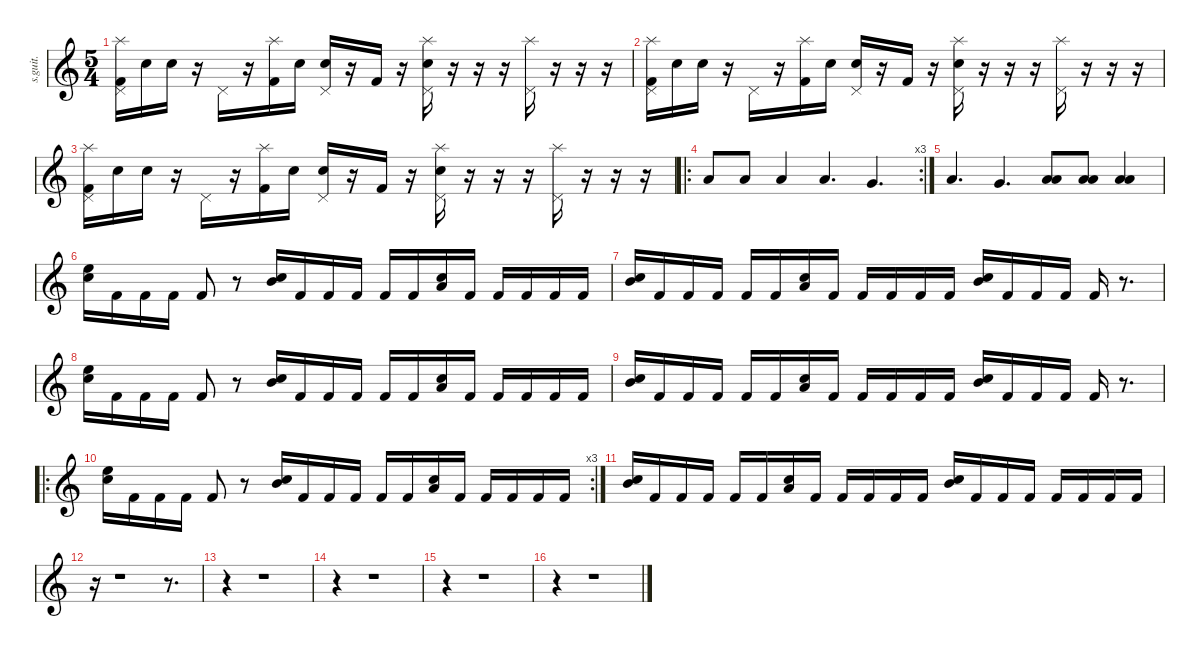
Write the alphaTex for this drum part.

\defaultSystemsLayout 4
\hideDynamics
\bracketExtendMode nobrackets
\track ("Pete Riley" "s.guit.") {instrument percussion}
\staff {score}
\articulation defaults
\ts (5 4)
\tempo (152 hide)
\clef g2
\ks c
("Splash (hit)" "Pedal Hi-Hat (hit)" "Kick (hit) 2").16{dy f} "Snare (hit) 2".16{dy mp} "Snare (hit) 2".16{dy p} r.16 "Pedal Hi-Hat (hit)".16{dy mp} r.16 ("Splash (hit)" "Kick (hit) 2").16{dy f} "Snare (hit) 2".16{dy mp} ("Pedal Hi-Hat (hit)" "Snare (hit) 2").16 r.16 "Kick (hit) 2".16{dy mf} r.16 ("Splash (hit)" "Pedal Hi-Hat (hit)" "Snare (hit) 2").16{dy f} r.16 r.16 r.16 ("Splash (hit)" "Pedal Hi-Hat (hit)").16 r.16 r.16 r.16 |
("Splash (hit)" "Pedal Hi-Hat (hit)" "Kick (hit) 2").16 "Snare (hit) 2".16{dy mp} "Snare (hit) 2".16{dy p} r.16 "Pedal Hi-Hat (hit)".16{dy mp} r.16 ("Splash (hit)" "Kick (hit) 2").16{dy f} "Snare (hit) 2".16{dy mp} ("Pedal Hi-Hat (hit)" "Snare (hit) 2").16 r.16 "Kick (hit) 2".16{dy mf} r.16 ("Splash (hit)" "Pedal Hi-Hat (hit)" "Snare (hit) 2").16{dy f} r.16 r.16 r.16 ("Splash (hit)" "Pedal Hi-Hat (hit)").16 r.16 r.16 r.16 |
("Splash (hit)" "Pedal Hi-Hat (hit)" "Kick (hit) 2").16 "Snare (hit) 2".16{dy mp} "Snare (hit) 2".16{dy p} r.16 "Pedal Hi-Hat (hit)".16{dy mp} r.16 ("Splash (hit)" "Kick (hit) 2").16{dy f} "Snare (hit) 2".16{dy mp} ("Pedal Hi-Hat (hit)" "Snare (hit) 2").16 r.16 "Kick (hit) 2".16{dy mf} r.16 ("Splash (hit)" "Pedal Hi-Hat (hit)" "Snare (hit) 2").16{dy f} r.16 r.16 r.16 ("Splash (hit)" "Pedal Hi-Hat (hit)").16 r.16 r.16 r.16 |
\ro
\rc 3 "Low Floor Tom (hit)".8 "Low Floor Tom (hit)".8 "Low Floor Tom (hit)".4 "Low Tom (hit)".4{d} "Very Low Tom (hit)".4{d}
|
"Low Tom (hit)".4{d} "Very Low Tom (hit)".4{d} ("Low Tom (hit)" "Low Floor Tom (hit)").8 ("Low Tom (hit)" "Low Floor Tom (hit)").8 ("Low Tom (hit)" "Low Floor Tom (hit)").4 |
("High Floor Tom (hit)" "Snare (hit) 2").16 "Kick (hit) 2".16 "Kick (hit) 2".16 "Kick (hit) 2".16 "Kick (hit) 2".8 r.8 ("Mid Tom (hit)" "Snare (hit) 2").16 "Kick (hit) 2".16 "Kick (hit) 2".16 "Kick (hit) 2".16 "Kick (hit) 2".16 "Kick (hit) 2".16 ("Low Tom (hit)" "Snare (hit) 2").16 "Kick (hit) 2".16 "Kick (hit) 2".16 "Kick (hit) 2".16 "Kick (hit) 2".16 "Kick (hit) 2".16 |
("Mid Tom (hit)" "Snare (hit) 2").16 "Kick (hit) 2".16 "Kick (hit) 2".16 "Kick (hit) 2".16 "Kick (hit) 2".16 "Kick (hit) 2".16 ("Low Tom (hit)" "Snare (hit) 2").16 "Kick (hit) 2".16 "Kick (hit) 2".16 "Kick (hit) 2".16 "Kick (hit) 2".16 "Kick (hit) 2".16 ("Mid Tom (hit)" "Snare (hit) 2").16 "Kick (hit) 2".16 "Kick (hit) 2".16 "Kick (hit) 2".16 "Kick (hit) 2".16 r.8{d} |
("High Floor Tom (hit)" "Snare (hit) 2").16 "Kick (hit) 2".16 "Kick (hit) 2".16 "Kick (hit) 2".16 "Kick (hit) 2".8 r.8 ("Mid Tom (hit)" "Snare (hit) 2").16 "Kick (hit) 2".16 "Kick (hit) 2".16 "Kick (hit) 2".16 "Kick (hit) 2".16 "Kick (hit) 2".16 ("Low Tom (hit)" "Snare (hit) 2").16 "Kick (hit) 2".16 "Kick (hit) 2".16 "Kick (hit) 2".16 "Kick (hit) 2".16 "Kick (hit) 2".16 |
("Mid Tom (hit)" "Snare (hit) 2").16 "Kick (hit) 2".16 "Kick (hit) 2".16 "Kick (hit) 2".16 "Kick (hit) 2".16 "Kick (hit) 2".16 ("Low Tom (hit)" "Snare (hit) 2").16 "Kick (hit) 2".16 "Kick (hit) 2".16 "Kick (hit) 2".16 "Kick (hit) 2".16 "Kick (hit) 2".16 ("Mid Tom (hit)" "Snare (hit) 2").16 "Kick (hit) 2".16 "Kick (hit) 2".16 "Kick (hit) 2".16 "Kick (hit) 2".16 r.8{d} |
\ro
\rc 3
("High Floor Tom (hit)" "Snare (hit) 2").16 "Kick (hit) 2".16 "Kick (hit) 2".16 "Kick (hit) 2".16 "Kick (hit) 2".8 r.8 ("Mid Tom (hit)" "Snare (hit) 2").16 "Kick (hit) 2".16 "Kick (hit) 2".16 "Kick (hit) 2".16 "Kick (hit) 2".16 "Kick (hit) 2".16 ("Low Tom (hit)" "Snare (hit) 2").16 "Kick (hit) 2".16 "Kick (hit) 2".16 "Kick (hit) 2".16 "Kick (hit) 2".16 "Kick (hit) 2".16 |
("Mid Tom (hit)" "Snare (hit) 2").16 "Kick (hit) 2".16 "Kick (hit) 2".16 "Kick (hit) 2".16 "Kick (hit) 2".16 "Kick (hit) 2".16 ("Low Tom (hit)" "Snare (hit) 2").16 "Kick (hit) 2".16 "Kick (hit) 2".16 "Kick (hit) 2".16 "Kick (hit) 2".16 "Kick (hit) 2".16 ("Mid Tom (hit)" "Snare (hit) 2").16 "Kick (hit) 2".16 "Kick (hit) 2".16 "Kick (hit) 2".16 "Kick (hit) 2".16 "Kick (hit) 2".16 "Kick (hit) 2".16 "Kick (hit) 2".16 |
r.16 r.1 r.8{d} |
r.4 r.1 |
r.4 r.1 |
r.4 r.1 |
r.4 r.1
